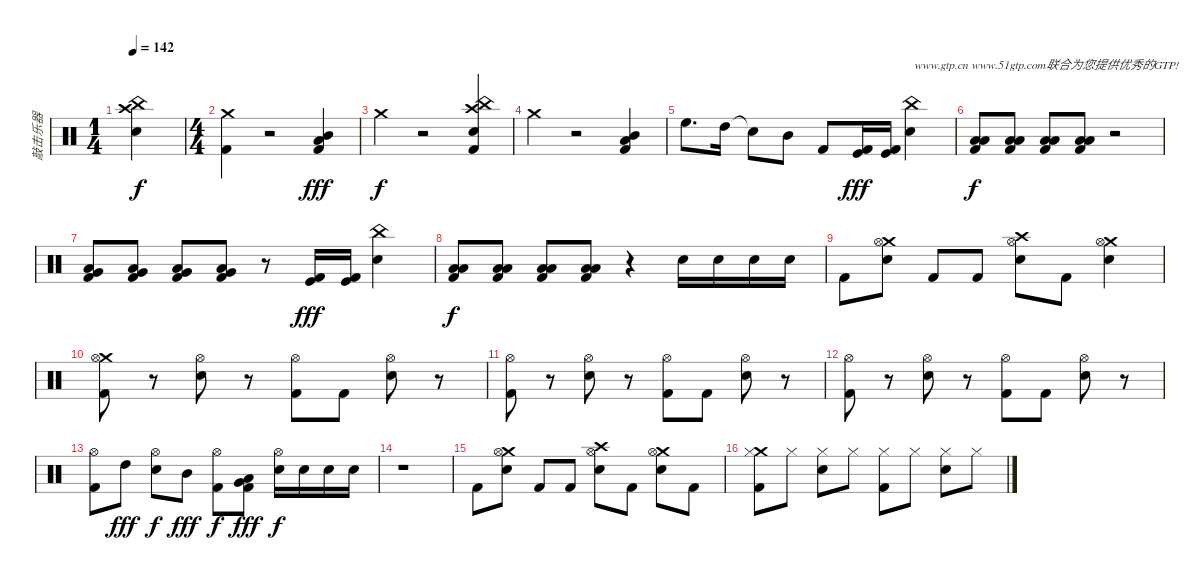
\track ("敲击乐器" "敲击乐器") {instrument percussion}
\staff {score}
\articulation defaults
\ts (1 4)
\tempo 142
\clef neutral
\ks c
("Snare (hit) 2" "Crash high (hit)" "China (hit)").4{dy f} |
\ts (4 4)
("Crash medium (hit)" "Kick (hit) 2").4 r.2 ("Mid Tom (hit)" "Low Tom (hit)" "Kick (hit) 2").4{dy fff} |
"Crash medium (hit)".4{dy f} r.2 ("Snare (hit) 2" "Crash high (hit)" "China (hit)" "Kick (hit) 2").4 |
"Crash medium (hit)".4 r.2 ("Mid Tom (hit)" "Low Tom (hit)" "Kick (hit) 2").4 |
"High Floor Tom (hit)".8{d} "High Tom (hit)".16 "Snare (hit)"{t}.8 "Mid Tom (hit)".8 "Kick (hit) 2".8 ("Kick (hit)" "Kick (hit) 2").16{dy fff} ("Kick (hit)" "Kick (hit) 2").16 ("Snare (hit) 2" "China (hit)").4{txt "www.gtp.cn www.51gtp.com联合为您提供优秀的GTP!"} |
("Low Tom (hit)" "Low Floor Tom (hit)" "Kick (hit) 2").8{dy f} ("Low Tom (hit)" "Low Floor Tom (hit)" "Kick (hit) 2").8 ("Low Tom (hit)" "Low Floor Tom (hit)" "Kick (hit) 2").8 ("Low Tom (hit)" "Low Floor Tom (hit)" "Kick (hit) 2").8 r.2 |
("Very Low Tom (hit)" "Low Floor Tom (hit)" "Kick (hit) 2").8 ("Very Low Tom (hit)" "Low Floor Tom (hit)" "Kick (hit) 2").8 ("Very Low Tom (hit)" "Low Floor Tom (hit)" "Kick (hit) 2").8 ("Very Low Tom (hit)" "Low Floor Tom (hit)" "Kick (hit) 2").8 r.8 ("Kick (hit)" "Kick (hit) 2").16{dy fff} ("Kick (hit)" "Kick (hit) 2").16 ("Snare (hit) 2" "China (hit)").4 |
("Low Tom (hit)" "Low Floor Tom (hit)" "Kick (hit) 2").8{dy f} ("Low Tom (hit)" "Low Floor Tom (hit)" "Kick (hit) 2").8 ("Low Tom (hit)" "Low Floor Tom (hit)" "Kick (hit) 2").8 ("Low Tom (hit)" "Low Floor Tom (hit)" "Kick (hit) 2").8 r.4 "Snare (hit) 2".16 "Snare (hit) 2".16 "Snare (hit) 2".16 "Snare (hit) 2".16 |
"Kick (hit) 2".8 ("Snare (hit) 2" "Crash medium (hit)" "Hi-Hat (open)").8 "Kick (hit) 2".8 "Kick (hit) 2".8 ("Snare (hit) 2" "Crash high (hit)" "Hi-Hat (open)").8 "Kick (hit) 2".8 ("Snare (hit) 2" "Crash medium (hit)" "Hi-Hat (open)").4 |
("Crash medium (hit)" "Hi-Hat (open)" "Kick (hit) 2").8 r.8 ("Snare (hit) 2" "Hi-Hat (open)").8 r.8 ("Hi-Hat (open)" "Kick (hit) 2").8 "Kick (hit) 2".8 ("Snare (hit) 2" "Hi-Hat (open)").8 r.8 |
("Hi-Hat (open)" "Kick (hit) 2").8 r.8 ("Snare (hit) 2" "Hi-Hat (open)").8 r.8 ("Hi-Hat (open)" "Kick (hit) 2").8 "Kick (hit) 2".8 ("Snare (hit) 2" "Hi-Hat (open)").8 r.8 |
("Hi-Hat (open)" "Kick (hit) 2").8 r.8 ("Snare (hit) 2" "Hi-Hat (open)").8 r.8 ("Hi-Hat (open)" "Kick (hit) 2").8 "Kick (hit) 2".8 ("Snare (hit) 2" "Hi-Hat (open)").8 r.8 |
("Hi-Hat (open)" "Kick (hit) 2").8 "High Tom (hit)".8{dy fff} ("Snare (hit) 2" "Hi-Hat (open)").8{dy f} "Mid Tom (hit)".8{dy fff} ("Hi-Hat (open)" "Kick (hit) 2").8{dy f} ("Very Low Tom (hit)" "Low Floor Tom (hit)" "Kick (hit) 2").8{dy fff} ("Snare (hit) 2" "Hi-Hat (open)").16{dy f} "Snare (hit) 2".16 "Snare (hit) 2".16 "Snare (hit) 2".16 |
r.1 |
"Kick (hit) 2".8 ("Snare (hit) 2" "Crash medium (hit)" "Hi-Hat (open)").8 "Kick (hit) 2".8 "Kick (hit) 2".8 ("Snare (hit) 2" "Crash high (hit)" "Hi-Hat (open)").8 "Kick (hit) 2".8 ("Snare (hit) 2" "Crash medium (hit)" "Hi-Hat (open)").8 "Kick (hit) 2".8 |
("Crash medium (hit)" "Hi-Hat (closed)" "Kick (hit) 2").8 "Hi-Hat (closed)".8 ("Snare (hit) 2" "Hi-Hat (closed)").8 "Hi-Hat (closed)".8 ("Hi-Hat (closed)" "Kick (hit) 2").8 "Hi-Hat (closed)".8 ("Snare (hit) 2" "Hi-Hat (closed)").8 "Hi-Hat (closed)".8
